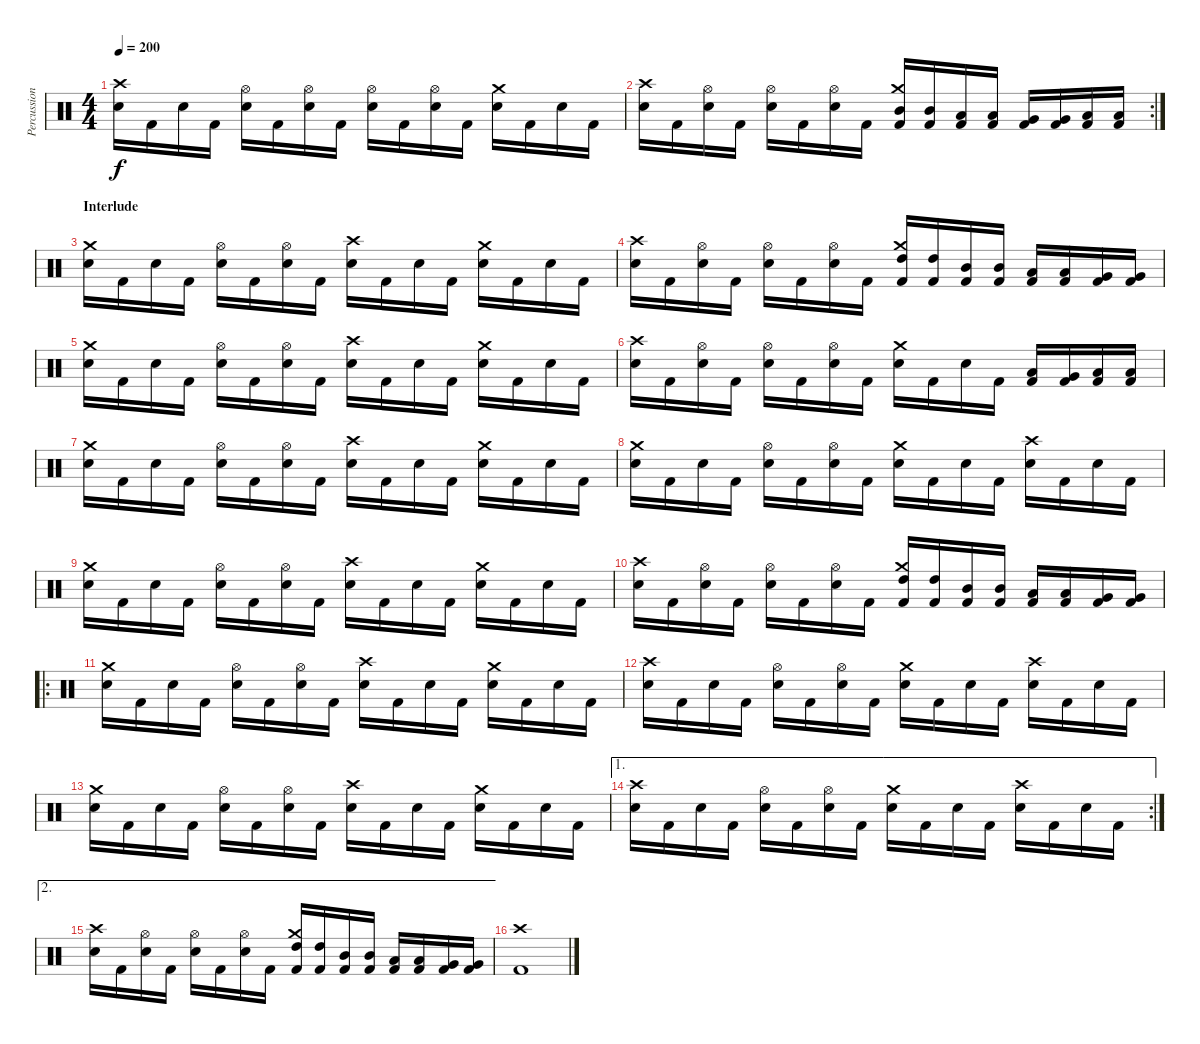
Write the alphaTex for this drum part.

\track ("Percussion" "Percussion") {instrument percussion}
\staff {score}
\articulation defaults
\ts (4 4)
\tempo 200
\clef neutral
\ks c
("Snare (hit) 2" "Crash high (hit)").16{dy f} "Kick (hit) 2".16 "Snare (hit) 2".16 "Kick (hit) 2".16 ("Snare (hit) 2" "Hi-Hat (open)").16 "Kick (hit) 2".16 ("Snare (hit) 2" "Hi-Hat (open)").16 "Kick (hit) 2".16 ("Snare (hit) 2" "Hi-Hat (open)").16 "Kick (hit) 2".16 ("Snare (hit) 2" "Hi-Hat (open)").16 "Kick (hit) 2".16 ("Snare (hit) 2" "Crash medium (hit)").16 "Kick (hit) 2".16 "Snare (hit) 2".16 "Kick (hit) 2".16 |
\rc 2
("Snare (hit) 2" "Crash high (hit)").16 "Kick (hit) 2".16 ("Snare (hit) 2" "Hi-Hat (open)").16 "Kick (hit) 2".16 ("Snare (hit) 2" "Hi-Hat (open)").16 "Kick (hit) 2".16 ("Snare (hit) 2" "Hi-Hat (open)").16 "Kick (hit) 2".16 ("Kick (hit) 2" "Mid Tom (hit)" "Crash medium (hit)").16 ("Kick (hit) 2" "Mid Tom (hit)").16 ("Kick (hit) 2" "Low Tom (hit)").16 ("Kick (hit) 2" "Low Tom (hit)").16 ("Kick (hit) 2" "Very Low Tom (hit)").16 ("Kick (hit) 2" "Very Low Tom (hit)").16 ("Kick (hit) 2" "Low Floor Tom (hit)").16 ("Kick (hit) 2" "Low Floor Tom (hit)").16 |
\section ("" "Interlude")
("Snare (hit) 2" "Crash medium (hit)").16 "Kick (hit) 2".16 "Snare (hit) 2".16 "Kick (hit) 2".16 ("Snare (hit) 2" "Hi-Hat (open)").16 "Kick (hit) 2".16 ("Snare (hit) 2" "Hi-Hat (open)").16 "Kick (hit) 2".16 ("Snare (hit) 2" "Crash high (hit)").16 "Kick (hit) 2".16 "Snare (hit) 2".16 "Kick (hit) 2".16 ("Snare (hit) 2" "Crash medium (hit)").16 "Kick (hit) 2".16 "Snare (hit) 2".16 "Kick (hit) 2".16 |
("Snare (hit) 2" "Crash high (hit)").16 "Kick (hit) 2".16 ("Snare (hit) 2" "Hi-Hat (open)").16 "Kick (hit) 2".16 ("Snare (hit) 2" "Hi-Hat (open)").16 "Kick (hit) 2".16 ("Snare (hit) 2" "Hi-Hat (open)").16 "Kick (hit) 2".16 ("Kick (hit) 2" "High Tom (hit)" "Crash medium (hit)").16 ("Kick (hit) 2" "High Tom (hit)").16 ("Kick (hit) 2" "Mid Tom (hit)").16 ("Kick (hit) 2" "Mid Tom (hit)").16 ("Kick (hit) 2" "Low Tom (hit)").16 ("Kick (hit) 2" "Low Tom (hit)").16 ("Kick (hit) 2" "Very Low Tom (hit)").16 ("Kick (hit) 2" "Very Low Tom (hit)").16 |
("Snare (hit) 2" "Crash medium (hit)").16 "Kick (hit) 2".16 "Snare (hit) 2".16 "Kick (hit) 2".16 ("Snare (hit) 2" "Hi-Hat (open)").16 "Kick (hit) 2".16 ("Snare (hit) 2" "Hi-Hat (open)").16 "Kick (hit) 2".16 ("Snare (hit) 2" "Crash high (hit)").16 "Kick (hit) 2".16 "Snare (hit) 2".16 "Kick (hit) 2".16 ("Snare (hit) 2" "Crash medium (hit)").16 "Kick (hit) 2".16 "Snare (hit) 2".16 "Kick (hit) 2".16 |
("Snare (hit) 2" "Crash high (hit)").16 "Kick (hit) 2".16 ("Snare (hit) 2" "Hi-Hat (open)").16 "Kick (hit) 2".16 ("Snare (hit) 2" "Hi-Hat (open)").16 "Kick (hit) 2".16 ("Snare (hit) 2" "Hi-Hat (open)").16 "Kick (hit) 2".16 ("Snare (hit) 2" "Crash medium (hit)").16 "Kick (hit) 2".16 "Snare (hit) 2".16 "Kick (hit) 2".16 ("Kick (hit) 2" "Low Tom (hit)").16 ("Kick (hit) 2" "Very Low Tom (hit)").16 ("Kick (hit) 2" "Low Floor Tom (hit)").16 ("Kick (hit) 2" "Low Floor Tom (hit)").16 |
("Snare (hit) 2" "Crash medium (hit)").16 "Kick (hit) 2".16 "Snare (hit) 2".16 "Kick (hit) 2".16 ("Snare (hit) 2" "Hi-Hat (open)").16 "Kick (hit) 2".16 ("Snare (hit) 2" "Hi-Hat (open)").16 "Kick (hit) 2".16 ("Snare (hit) 2" "Crash high (hit)").16 "Kick (hit) 2".16 "Snare (hit) 2".16 "Kick (hit) 2".16 ("Snare (hit) 2" "Crash medium (hit)").16 "Kick (hit) 2".16 "Snare (hit) 2".16 "Kick (hit) 2".16 |
("Snare (hit) 2" "Crash medium (hit)").16 "Kick (hit) 2".16 "Snare (hit) 2".16 "Kick (hit) 2".16 ("Snare (hit) 2" "Hi-Hat (open)").16 "Kick (hit) 2".16 ("Snare (hit) 2" "Hi-Hat (open)").16 "Kick (hit) 2".16 ("Snare (hit) 2" "Crash medium (hit)").16 "Kick (hit) 2".16 "Snare (hit) 2".16 "Kick (hit) 2".16 ("Snare (hit) 2" "Crash high (hit)").16 "Kick (hit) 2".16 "Snare (hit) 2".16 "Kick (hit) 2".16 |
("Snare (hit) 2" "Crash medium (hit)").16 "Kick (hit) 2".16 "Snare (hit) 2".16 "Kick (hit) 2".16 ("Snare (hit) 2" "Hi-Hat (open)").16 "Kick (hit) 2".16 ("Snare (hit) 2" "Hi-Hat (open)").16 "Kick (hit) 2".16 ("Snare (hit) 2" "Crash high (hit)").16 "Kick (hit) 2".16 "Snare (hit) 2".16 "Kick (hit) 2".16 ("Snare (hit) 2" "Crash medium (hit)").16 "Kick (hit) 2".16 "Snare (hit) 2".16 "Kick (hit) 2".16 |
("Snare (hit) 2" "Crash high (hit)").16 "Kick (hit) 2".16 ("Snare (hit) 2" "Hi-Hat (open)").16 "Kick (hit) 2".16 ("Snare (hit) 2" "Hi-Hat (open)").16 "Kick (hit) 2".16 ("Snare (hit) 2" "Hi-Hat (open)").16 "Kick (hit) 2".16 ("Kick (hit) 2" "High Tom (hit)" "Crash medium (hit)").16 ("Kick (hit) 2" "High Tom (hit)").16 ("Kick (hit) 2" "Mid Tom (hit)").16 ("Kick (hit) 2" "Mid Tom (hit)").16 ("Kick (hit) 2" "Low Tom (hit)").16 ("Kick (hit) 2" "Low Tom (hit)").16 ("Kick (hit) 2" "Very Low Tom (hit)").16 ("Kick (hit) 2" "Very Low Tom (hit)").16 |
\ro
("Snare (hit) 2" "Crash medium (hit)").16 "Kick (hit) 2".16 "Snare (hit) 2".16 "Kick (hit) 2".16 ("Snare (hit) 2" "Hi-Hat (open)").16 "Kick (hit) 2".16 ("Snare (hit) 2" "Hi-Hat (open)").16 "Kick (hit) 2".16 ("Snare (hit) 2" "Crash high (hit)").16 "Kick (hit) 2".16 "Snare (hit) 2".16 "Kick (hit) 2".16 ("Snare (hit) 2" "Crash medium (hit)").16 "Kick (hit) 2".16 "Snare (hit) 2".16 "Kick (hit) 2".16 |
("Snare (hit) 2" "Crash high (hit)").16 "Kick (hit) 2".16 "Snare (hit) 2".16 "Kick (hit) 2".16 ("Snare (hit) 2" "Hi-Hat (open)").16 "Kick (hit) 2".16 ("Snare (hit) 2" "Hi-Hat (open)").16 "Kick (hit) 2".16 ("Snare (hit) 2" "Crash medium (hit)").16 "Kick (hit) 2".16 "Snare (hit) 2".16 "Kick (hit) 2".16 ("Snare (hit) 2" "Crash high (hit)").16 "Kick (hit) 2".16 "Snare (hit) 2".16 "Kick (hit) 2".16 |
("Snare (hit) 2" "Crash medium (hit)").16 "Kick (hit) 2".16 "Snare (hit) 2".16 "Kick (hit) 2".16 ("Snare (hit) 2" "Hi-Hat (open)").16 "Kick (hit) 2".16 ("Snare (hit) 2" "Hi-Hat (open)").16 "Kick (hit) 2".16 ("Snare (hit) 2" "Crash high (hit)").16 "Kick (hit) 2".16 "Snare (hit) 2".16 "Kick (hit) 2".16 ("Snare (hit) 2" "Crash medium (hit)").16 "Kick (hit) 2".16 "Snare (hit) 2".16 "Kick (hit) 2".16 |
\ae 1
\rc 2
("Snare (hit) 2" "Crash high (hit)").16 "Kick (hit) 2".16 "Snare (hit) 2".16 "Kick (hit) 2".16 ("Snare (hit) 2" "Hi-Hat (open)").16 "Kick (hit) 2".16 ("Snare (hit) 2" "Hi-Hat (open)").16 "Kick (hit) 2".16 ("Snare (hit) 2" "Crash medium (hit)").16 "Kick (hit) 2".16 "Snare (hit) 2".16 "Kick (hit) 2".16 ("Snare (hit) 2" "Crash high (hit)").16 "Kick (hit) 2".16 "Snare (hit) 2".16 "Kick (hit) 2".16 |
\ae 2
("Snare (hit) 2" "Crash high (hit)").16 "Kick (hit) 2".16 ("Snare (hit) 2" "Hi-Hat (open)").16 "Kick (hit) 2".16 ("Snare (hit) 2" "Hi-Hat (open)").16 "Kick (hit) 2".16 ("Snare (hit) 2" "Hi-Hat (open)").16 "Kick (hit) 2".16 ("Kick (hit) 2" "High Tom (hit)" "Crash medium (hit)").16 ("Kick (hit) 2" "High Tom (hit)").16 ("Kick (hit) 2" "Mid Tom (hit)").16 ("Kick (hit) 2" "Mid Tom (hit)").16 ("Kick (hit) 2" "Low Tom (hit)").16 ("Kick (hit) 2" "Low Tom (hit)").16 ("Kick (hit) 2" "Very Low Tom (hit)").16 ("Kick (hit) 2" "Very Low Tom (hit)").16 |
("Kick (hit) 2" "Crash high (hit)").1
